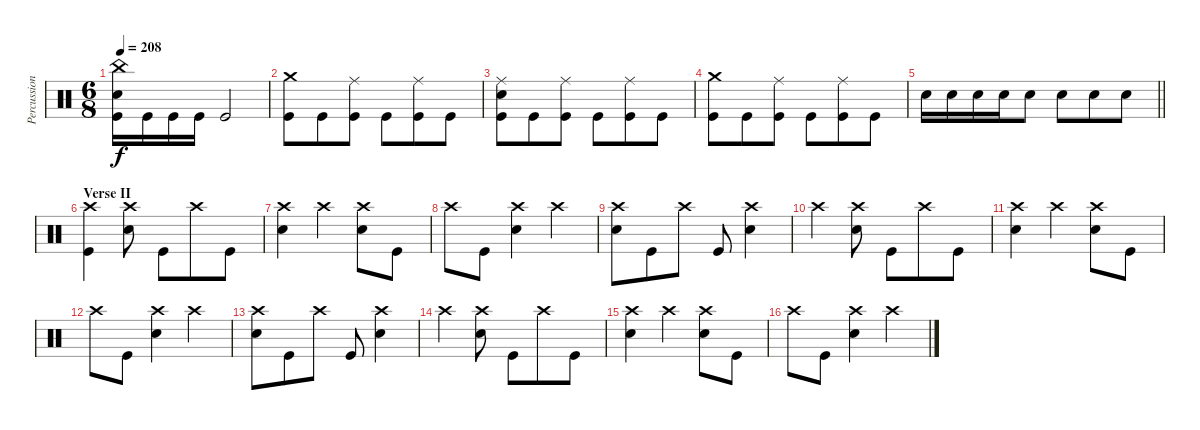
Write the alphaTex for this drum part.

\track ("Percussion" "Percussion") {instrument percussion}
\staff {score}
\articulation defaults
\ts (6 8)
\tempo 208
\clef neutral
\ks c
("China (hit)" "Electric Snare (hit)" "Kick (hit)").16{dy f} "Kick (hit)".16 "Kick (hit)".16 "Kick (hit)".16 "Kick (hit)".2 |
("Crash medium (hit)" "Kick (hit)").8 "Kick (hit)".8 ("Ride (middle)" "Kick (hit)").8 "Kick (hit)".8 ("Ride (middle)" "Kick (hit)").8 "Kick (hit)".8 |
("Ride (middle)" "Electric Snare (hit)" "Kick (hit)").8 "Kick (hit)".8 ("Ride (middle)" "Kick (hit)").8 "Kick (hit)".8 ("Ride (middle)" "Kick (hit)").8 "Kick (hit)".8 |
("Crash medium (hit)" "Kick (hit)").8 "Kick (hit)".8 ("Ride (middle)" "Kick (hit)").8 "Kick (hit)".8 ("Ride (middle)" "Kick (hit)").8 "Kick (hit)".8 |
\barLineRight lightlight "Electric Snare (hit)".16 "Electric Snare (hit)".16 "Electric Snare (hit)".16 "Electric Snare (hit)".16 "Electric Snare (hit)".8 "Electric Snare (hit)".8 "Electric Snare (hit)".8 "Electric Snare (hit)".8
|
\section ("" "Verse II")
("Crash high (hit)" "Kick (hit)").4 ("Crash high (hit)" "Electric Snare (hit)").8 "Kick (hit)".8 "Crash high (hit)".8 "Kick (hit)".8 |
("Crash high (hit)" "Electric Snare (hit)").4 "Crash high (hit)".4 ("Crash high (hit)" "Electric Snare (hit)").8 "Kick (hit)".8 |
"Crash high (hit)".8 "Kick (hit)".8 ("Crash high (hit)" "Electric Snare (hit)").4 "Crash high (hit)".4 |
("Crash high (hit)" "Electric Snare (hit)").8 "Kick (hit)".8 "Crash high (hit)".8 "Kick (hit)".8 ("Crash high (hit)" "Electric Snare (hit)").4 |
"Crash high (hit)".4 ("Crash high (hit)" "Electric Snare (hit)").8 "Kick (hit)".8 "Crash high (hit)".8 "Kick (hit)".8 |
("Crash high (hit)" "Electric Snare (hit)").4 "Crash high (hit)".4 ("Crash high (hit)" "Electric Snare (hit)").8 "Kick (hit)".8 |
"Crash high (hit)".8 "Kick (hit)".8 ("Crash high (hit)" "Electric Snare (hit)").4 "Crash high (hit)".4 |
("Crash high (hit)" "Electric Snare (hit)").8 "Kick (hit)".8 "Crash high (hit)".8 "Kick (hit)".8 ("Crash high (hit)" "Electric Snare (hit)").4 |
"Crash high (hit)".4 ("Crash high (hit)" "Electric Snare (hit)").8 "Kick (hit)".8 "Crash high (hit)".8 "Kick (hit)".8 |
("Crash high (hit)" "Electric Snare (hit)").4 "Crash high (hit)".4 ("Crash high (hit)" "Electric Snare (hit)").8 "Kick (hit)".8 |
"Crash high (hit)".8 "Kick (hit)".8 ("Crash high (hit)" "Electric Snare (hit)").4 "Crash high (hit)".4
